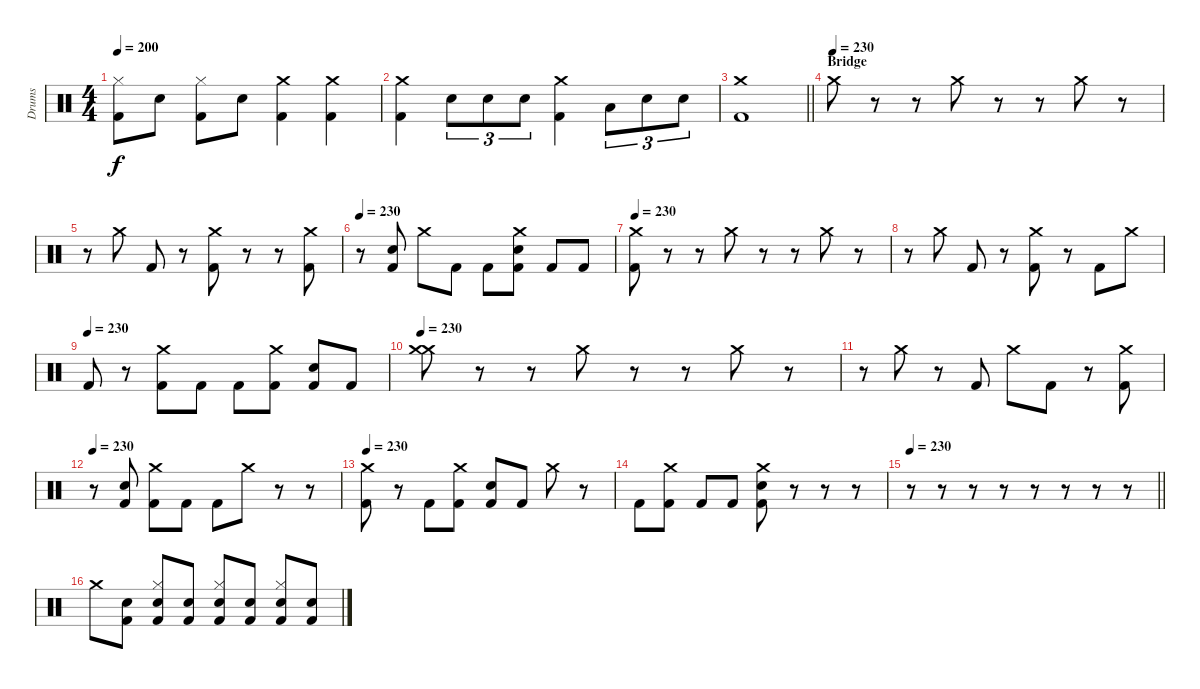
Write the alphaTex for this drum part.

\track ("Drums" "Drums") {instrument percussion}
\staff {score}
\articulation defaults
\ts (4 4)
\tempo 200
\clef neutral
\ks c
("Kick (hit) 2" "Hi-Hat (closed)").8{dy f} "Snare (hit) 2".8 ("Kick (hit) 2" "Hi-Hat (closed)").8 "Snare (hit) 2".8 ("Crash medium (hit)" "Kick (hit) 2").4 ("Crash medium (hit)" "Kick (hit) 2").4 |
("Crash medium (hit)" "Kick (hit) 2").4 "Snare (hit) 2".8{tu (3 2)} "Snare (hit) 2".8{tu (3 2)} "Snare (hit) 2".8{tu (3 2)} ("Crash medium (hit)" "Kick (hit) 2").4 "Low Tom (hit)".8{tu (3 2)} "Snare (hit) 2".8{tu (3 2)} "Snare (hit) 2".8{tu (3 2)} |
\barLineRight lightlight
("Kick (hit) 2" "Crash medium (hit)").1 |
\section ("" "Bridge")
\tempo (230)
"Crash medium (hit)".8 r.8 r.8 "Crash medium (hit)".8 r.8 r.8 "Crash medium (hit)".8 r.8 |
r.8 "Crash medium (hit)".8 "Kick (hit) 2".8 r.8 ("Crash medium (hit)" "Kick (hit) 2").8 r.8 r.8 ("Crash medium (hit)" "Kick (hit) 2").8 |
\tempo 230
r.8 ("Snare (hit) 2" "Kick (hit) 2").8 "Crash medium (hit)".8 "Kick (hit) 2".8 "Kick (hit) 2".8 ("Snare (hit) 2" "Crash medium (hit)" "Kick (hit) 2").8 "Kick (hit) 2".8 "Kick (hit) 2".8 |
\tempo 230
("Crash medium (hit)" "Kick (hit) 2").8 r.8 r.8 "Crash medium (hit)".8 r.8 r.8 "Crash medium (hit)".8 r.8 |
r.8 "Crash medium (hit)".8 "Kick (hit) 2".8 r.8 ("Crash medium (hit)" "Kick (hit) 2").8 r.8 "Kick (hit) 2".8 "Crash medium (hit)".8 |
\tempo (230)
"Kick (hit) 2".8 r.8 ("Crash medium (hit)" "Kick (hit) 2").8 "Kick (hit) 2".8 "Kick (hit) 2".8 ("Crash medium (hit)" "Kick (hit) 2").8 ("Snare (hit) 2" "Kick (hit) 2").8 "Kick (hit) 2".8 |
\tempo 230
("Crash medium (hit)" "Crash medium (hit)").8 r.8 r.8 "Crash medium (hit)".8 r.8 r.8 "Crash medium (hit)".8 r.8 |
r.8 "Crash medium (hit)".8 r.8 "Kick (hit) 2".8 "Crash medium (hit)".8 "Kick (hit) 2".8 r.8 ("Crash medium (hit)" "Kick (hit) 2").8 |
\tempo 230
r.8 ("Kick (hit) 2" "Snare (hit) 2").8 ("Crash medium (hit)" "Kick (hit) 2").8 "Kick (hit) 2".8 "Kick (hit) 2".8 "Crash medium (hit)".8 r.8 r.8 |
\tempo 230
("Crash medium (hit)" "Kick (hit) 2").8 r.8 "Kick (hit) 2".8 ("Crash medium (hit)" "Kick (hit) 2").8 ("Snare (hit) 2" "Kick (hit) 2").8 "Kick (hit) 2".8 "Crash medium (hit)".8 r.8 |
"Kick (hit) 2".8 ("Crash medium (hit)" "Kick (hit) 2").8 "Kick (hit) 2".8 "Kick (hit) 2".8 ("Kick (hit) 2" "Snare (hit) 2" "Crash medium (hit)").8 r.8 r.8 r.8 |
\tempo 230
\barLineRight lightlight
r.8 r.8 r.8 r.8 r.8 r.8 r.8 r.8 |
\section ("" "")
"Crash medium (hit)".8 ("Kick (hit) 2" "Snare (hit) 2").8 ("Kick (hit) 2" "Hi-Hat (closed)" "Snare (hit) 2").8 ("Kick (hit) 2" "Snare (hit) 2").8 ("Kick (hit) 2" "Hi-Hat (closed)" "Snare (hit) 2").8 ("Kick (hit) 2" "Snare (hit) 2").8 ("Kick (hit) 2" "Hi-Hat (closed)" "Snare (hit) 2").8 ("Kick (hit) 2" "Snare (hit) 2").8
